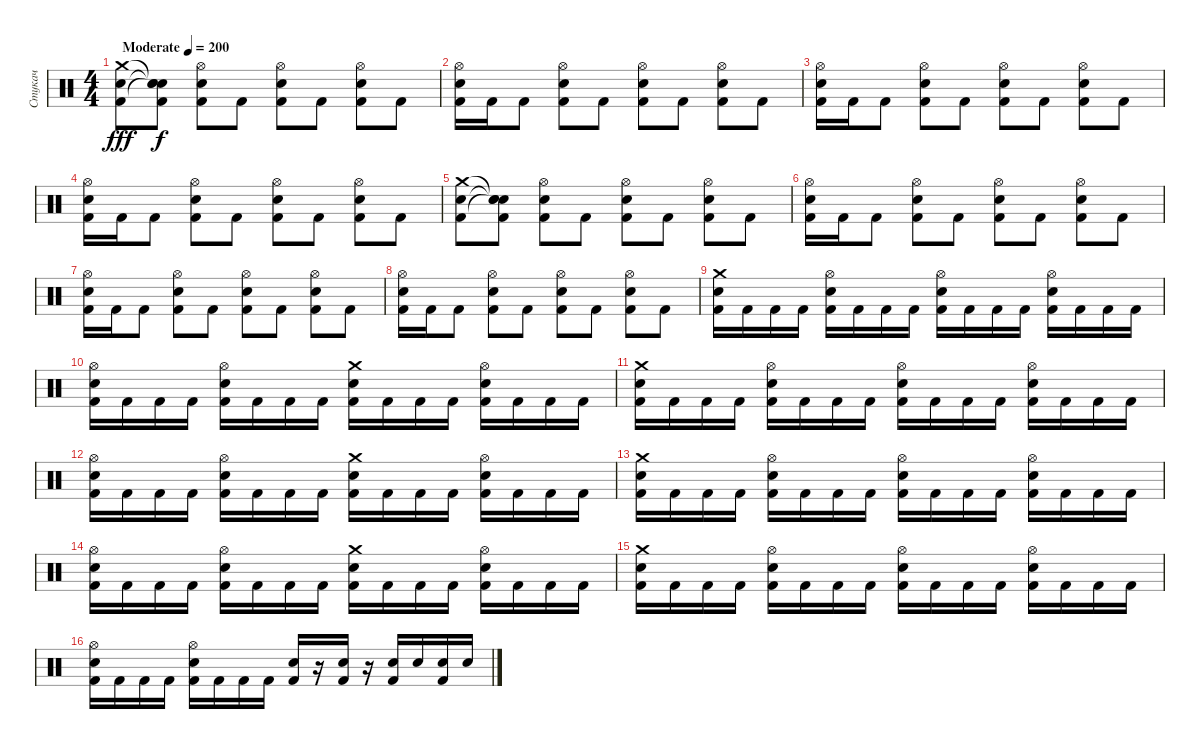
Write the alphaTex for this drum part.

\track ("Стукач" "Стукач") {instrument percussion}
\staff {score}
\articulation defaults
\ts (4 4)
\tempo (200 "Moderate")
\clef neutral
\ks c
("Crash medium (hit)" "Electric Snare (hit)" "Kick (hit) 2").8{dy fff} ("Snare (hit)"{t} "Snare (hit)"{t} "Snare (hit)"{t} "Kick (hit) 2").8{dy f} ("Hi-Hat (open)" "Electric Snare (hit)" "Kick (hit) 2").8 "Kick (hit) 2".8 ("Hi-Hat (open)" "Electric Snare (hit)" "Kick (hit) 2").8 "Kick (hit) 2".8 ("Hi-Hat (open)" "Electric Snare (hit)" "Kick (hit) 2").8 "Kick (hit) 2".8 |
("Hi-Hat (open)" "Electric Snare (hit)" "Kick (hit) 2").16 "Kick (hit) 2".16 "Kick (hit) 2".8 ("Hi-Hat (open)" "Electric Snare (hit)" "Kick (hit) 2").8 "Kick (hit) 2".8 ("Hi-Hat (open)" "Electric Snare (hit)" "Kick (hit) 2").8 "Kick (hit) 2".8 ("Hi-Hat (open)" "Electric Snare (hit)" "Kick (hit) 2").8 "Kick (hit) 2".8 |
("Hi-Hat (open)" "Electric Snare (hit)" "Kick (hit) 2").16 "Kick (hit) 2".16 "Kick (hit) 2".8 ("Hi-Hat (open)" "Electric Snare (hit)" "Kick (hit) 2").8 "Kick (hit) 2".8 ("Hi-Hat (open)" "Electric Snare (hit)" "Kick (hit) 2").8 "Kick (hit) 2".8 ("Hi-Hat (open)" "Electric Snare (hit)" "Kick (hit) 2").8 "Kick (hit) 2".8 |
("Hi-Hat (open)" "Electric Snare (hit)" "Kick (hit) 2").16 "Kick (hit) 2".16 "Kick (hit) 2".8 ("Hi-Hat (open)" "Electric Snare (hit)" "Kick (hit) 2").8 "Kick (hit) 2".8 ("Hi-Hat (open)" "Electric Snare (hit)" "Kick (hit) 2").8 "Kick (hit) 2".8 ("Hi-Hat (open)" "Electric Snare (hit)" "Kick (hit) 2").8 "Kick (hit) 2".8 |
("Crash medium (hit)" "Electric Snare (hit)" "Kick (hit) 2").8 ("Snare (hit)"{t} "Snare (hit)"{t} "Snare (hit)"{t} "Kick (hit) 2").8 ("Hi-Hat (open)" "Electric Snare (hit)" "Kick (hit) 2").8 "Kick (hit) 2".8 ("Hi-Hat (open)" "Electric Snare (hit)" "Kick (hit) 2").8 "Kick (hit) 2".8 ("Hi-Hat (open)" "Electric Snare (hit)" "Kick (hit) 2").8 "Kick (hit) 2".8 |
("Hi-Hat (open)" "Electric Snare (hit)" "Kick (hit) 2").16 "Kick (hit) 2".16 "Kick (hit) 2".8 ("Hi-Hat (open)" "Electric Snare (hit)" "Kick (hit) 2").8 "Kick (hit) 2".8 ("Hi-Hat (open)" "Electric Snare (hit)" "Kick (hit) 2").8 "Kick (hit) 2".8 ("Hi-Hat (open)" "Electric Snare (hit)" "Kick (hit) 2").8 "Kick (hit) 2".8 |
("Hi-Hat (open)" "Electric Snare (hit)" "Kick (hit) 2").16 "Kick (hit) 2".16 "Kick (hit) 2".8 ("Hi-Hat (open)" "Electric Snare (hit)" "Kick (hit) 2").8 "Kick (hit) 2".8 ("Hi-Hat (open)" "Electric Snare (hit)" "Kick (hit) 2").8 "Kick (hit) 2".8 ("Hi-Hat (open)" "Electric Snare (hit)" "Kick (hit) 2").8 "Kick (hit) 2".8 |
("Hi-Hat (open)" "Electric Snare (hit)" "Kick (hit) 2").16 "Kick (hit) 2".16 "Kick (hit) 2".8 ("Hi-Hat (open)" "Electric Snare (hit)" "Kick (hit) 2").8 "Kick (hit) 2".8 ("Hi-Hat (open)" "Electric Snare (hit)" "Kick (hit) 2").8 "Kick (hit) 2".8 ("Hi-Hat (open)" "Electric Snare (hit)" "Kick (hit) 2").8 "Kick (hit) 2".8 |
("Crash medium (hit)" "Electric Snare (hit)" "Kick (hit) 2").16 "Kick (hit) 2".16 "Kick (hit) 2".16 "Kick (hit) 2".16 ("Hi-Hat (open)" "Electric Snare (hit)" "Kick (hit) 2").16 "Kick (hit) 2".16 "Kick (hit) 2".16 "Kick (hit) 2".16 ("Hi-Hat (open)" "Electric Snare (hit)" "Kick (hit) 2").16 "Kick (hit) 2".16 "Kick (hit) 2".16 "Kick (hit) 2".16 ("Hi-Hat (open)" "Electric Snare (hit)" "Kick (hit) 2").16 "Kick (hit) 2".16 "Kick (hit) 2".16 "Kick (hit) 2".16 |
("Hi-Hat (open)" "Electric Snare (hit)" "Kick (hit) 2").16 "Kick (hit) 2".16 "Kick (hit) 2".16 "Kick (hit) 2".16 ("Hi-Hat (open)" "Electric Snare (hit)" "Kick (hit) 2").16 "Kick (hit) 2".16 "Kick (hit) 2".16 "Kick (hit) 2".16 ("Crash medium (hit)" "Electric Snare (hit)" "Kick (hit) 2").16 "Kick (hit) 2".16 "Kick (hit) 2".16 "Kick (hit) 2".16 ("Hi-Hat (open)" "Electric Snare (hit)" "Kick (hit) 2").16 "Kick (hit) 2".16 "Kick (hit) 2".16 "Kick (hit) 2".16 |
("Crash medium (hit)" "Electric Snare (hit)" "Kick (hit) 2").16 "Kick (hit) 2".16 "Kick (hit) 2".16 "Kick (hit) 2".16 ("Hi-Hat (open)" "Electric Snare (hit)" "Kick (hit) 2").16 "Kick (hit) 2".16 "Kick (hit) 2".16 "Kick (hit) 2".16 ("Hi-Hat (open)" "Electric Snare (hit)" "Kick (hit) 2").16 "Kick (hit) 2".16 "Kick (hit) 2".16 "Kick (hit) 2".16 ("Hi-Hat (open)" "Electric Snare (hit)" "Kick (hit) 2").16 "Kick (hit) 2".16 "Kick (hit) 2".16 "Kick (hit) 2".16 |
("Hi-Hat (open)" "Electric Snare (hit)" "Kick (hit) 2").16 "Kick (hit) 2".16 "Kick (hit) 2".16 "Kick (hit) 2".16 ("Hi-Hat (open)" "Electric Snare (hit)" "Kick (hit) 2").16 "Kick (hit) 2".16 "Kick (hit) 2".16 "Kick (hit) 2".16 ("Crash medium (hit)" "Electric Snare (hit)" "Kick (hit) 2").16 "Kick (hit) 2".16 "Kick (hit) 2".16 "Kick (hit) 2".16 ("Hi-Hat (open)" "Electric Snare (hit)" "Kick (hit) 2").16 "Kick (hit) 2".16 "Kick (hit) 2".16 "Kick (hit) 2".16 |
("Crash medium (hit)" "Electric Snare (hit)" "Kick (hit) 2").16 "Kick (hit) 2".16 "Kick (hit) 2".16 "Kick (hit) 2".16 ("Hi-Hat (open)" "Electric Snare (hit)" "Kick (hit) 2").16 "Kick (hit) 2".16 "Kick (hit) 2".16 "Kick (hit) 2".16 ("Hi-Hat (open)" "Electric Snare (hit)" "Kick (hit) 2").16 "Kick (hit) 2".16 "Kick (hit) 2".16 "Kick (hit) 2".16 ("Hi-Hat (open)" "Electric Snare (hit)" "Kick (hit) 2").16 "Kick (hit) 2".16 "Kick (hit) 2".16 "Kick (hit) 2".16 |
("Hi-Hat (open)" "Electric Snare (hit)" "Kick (hit) 2").16 "Kick (hit) 2".16 "Kick (hit) 2".16 "Kick (hit) 2".16 ("Hi-Hat (open)" "Electric Snare (hit)" "Kick (hit) 2").16 "Kick (hit) 2".16 "Kick (hit) 2".16 "Kick (hit) 2".16 ("Crash medium (hit)" "Electric Snare (hit)" "Kick (hit) 2").16 "Kick (hit) 2".16 "Kick (hit) 2".16 "Kick (hit) 2".16 ("Hi-Hat (open)" "Electric Snare (hit)" "Kick (hit) 2").16 "Kick (hit) 2".16 "Kick (hit) 2".16 "Kick (hit) 2".16 |
("Crash medium (hit)" "Electric Snare (hit)" "Kick (hit) 2").16 "Kick (hit) 2".16 "Kick (hit) 2".16 "Kick (hit) 2".16 ("Hi-Hat (open)" "Electric Snare (hit)" "Kick (hit) 2").16 "Kick (hit) 2".16 "Kick (hit) 2".16 "Kick (hit) 2".16 ("Hi-Hat (open)" "Electric Snare (hit)" "Kick (hit) 2").16 "Kick (hit) 2".16 "Kick (hit) 2".16 "Kick (hit) 2".16 ("Hi-Hat (open)" "Electric Snare (hit)" "Kick (hit) 2").16 "Kick (hit) 2".16 "Kick (hit) 2".16 "Kick (hit) 2".16 |
("Hi-Hat (open)" "Electric Snare (hit)" "Kick (hit) 2").16 "Kick (hit) 2".16 "Kick (hit) 2".16 "Kick (hit) 2".16 ("Hi-Hat (open)" "Electric Snare (hit)" "Kick (hit) 2").16 "Kick (hit) 2".16 "Kick (hit) 2".16 "Kick (hit) 2".16 ("Electric Snare (hit)" "Kick (hit) 2").16 r.16 ("Electric Snare (hit)" "Kick (hit) 2").16 r.16 ("Electric Snare (hit)" "Kick (hit) 2").16 "Electric Snare (hit)".16 ("Electric Snare (hit)" "Kick (hit) 2").16 "Electric Snare (hit)".16
